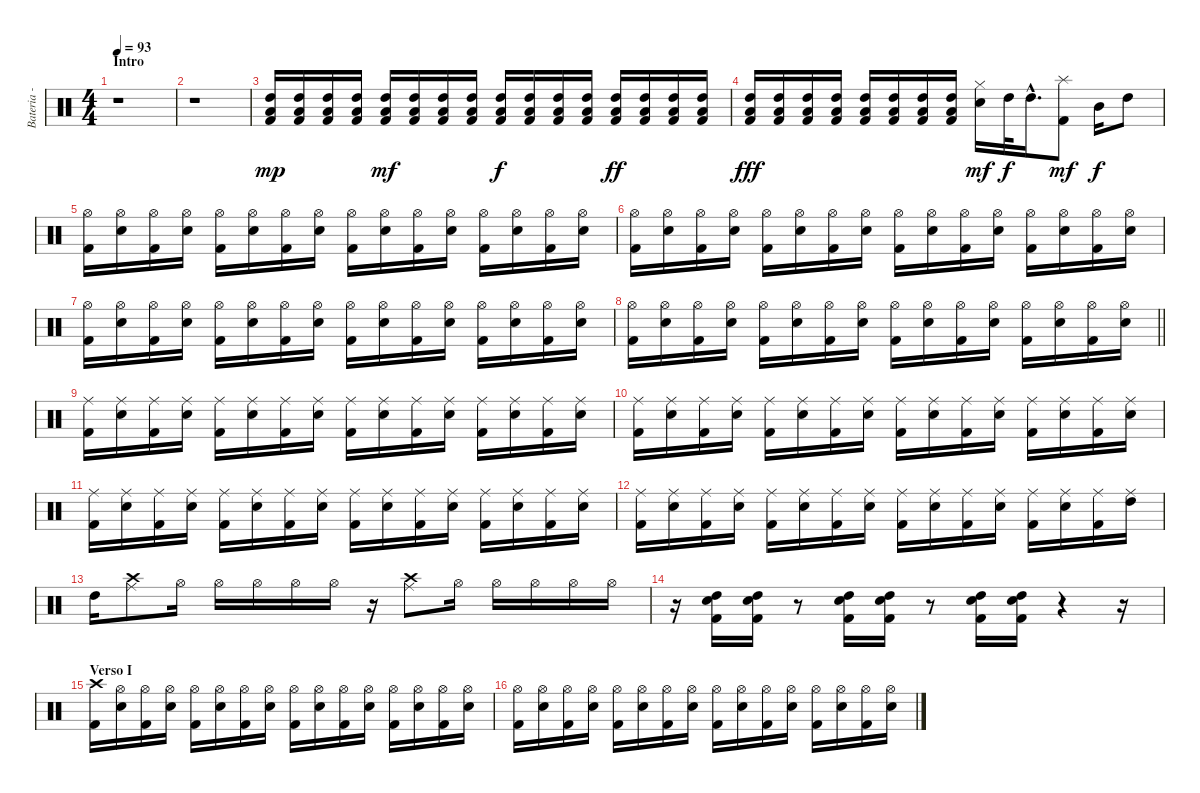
\track ("Bateria - Larzon" "Bateria - ") {instrument percussion}
\staff {score}
\articulation defaults
\ts (4 4)
\section ("" "Intro")
\tempo 93
\clef neutral
\ks c
r.1{dy mp} |
r.1 |
("Low Floor Tom (hit)" "High Tom (hit)" "Kick (hit) 2").16 ("Low Floor Tom (hit)" "High Tom (hit)" "Kick (hit) 2").16 ("Low Floor Tom (hit)" "High Tom (hit)" "Kick (hit) 2").16 ("Low Floor Tom (hit)" "High Tom (hit)" "Kick (hit) 2").16 ("Low Floor Tom (hit)" "High Tom (hit)" "Kick (hit) 2").16{dy mf} ("Low Floor Tom (hit)" "High Tom (hit)" "Kick (hit) 2").16 ("Low Floor Tom (hit)" "High Tom (hit)" "Kick (hit) 2").16 ("Low Floor Tom (hit)" "High Tom (hit)" "Kick (hit) 2").16 ("Low Floor Tom (hit)" "High Tom (hit)" "Kick (hit) 2").16{dy f} ("Low Floor Tom (hit)" "High Tom (hit)" "Kick (hit) 2").16 ("Low Floor Tom (hit)" "High Tom (hit)" "Kick (hit) 2").16 ("Low Floor Tom (hit)" "High Tom (hit)" "Kick (hit) 2").16 ("Low Floor Tom (hit)" "High Tom (hit)" "Kick (hit) 2").16{dy ff} ("Low Floor Tom (hit)" "High Tom (hit)" "Kick (hit) 2").16 ("Low Floor Tom (hit)" "High Tom (hit)" "Kick (hit) 2").16 ("Low Floor Tom (hit)" "High Tom (hit)" "Kick (hit) 2").16 |
("Low Floor Tom (hit)" "High Tom (hit)" "Kick (hit) 2").16{dy fff} ("Low Floor Tom (hit)" "High Tom (hit)" "Kick (hit) 2").16 ("Low Floor Tom (hit)" "High Tom (hit)" "Kick (hit) 2").16 ("Low Floor Tom (hit)" "High Tom (hit)" "Kick (hit) 2").16 ("Low Floor Tom (hit)" "High Tom (hit)" "Kick (hit) 2").16 ("Low Floor Tom (hit)" "High Tom (hit)" "Kick (hit) 2").16 ("Low Floor Tom (hit)" "High Tom (hit)" "Kick (hit) 2").16 ("Low Floor Tom (hit)" "High Tom (hit)" "Kick (hit) 2").16 ("Electric Snare (hit)" "Hi-Hat (closed)").16{dy mf} "High Tom (hit)".32{dy f} "High Tom (hit)"{hac}.16{d} ("Kick (hit) 2" "Splash (hit)").8{dy mf} "Mid Tom (hit)".16{dy f} "High Tom (hit)".8 |
("Kick (hit) 2" "Hi-Hat (open)").16 ("Electric Snare (hit)" "Hi-Hat (open)").16 ("Kick (hit) 2" "Hi-Hat (open)").16 ("Electric Snare (hit)" "Hi-Hat (open)").16 ("Kick (hit) 2" "Hi-Hat (open)").16 ("Electric Snare (hit)" "Hi-Hat (open)").16 ("Kick (hit) 2" "Hi-Hat (open)").16 ("Electric Snare (hit)" "Hi-Hat (open)").16 ("Kick (hit) 2" "Hi-Hat (open)").16 ("Electric Snare (hit)" "Hi-Hat (open)").16 ("Kick (hit) 2" "Hi-Hat (open)").16 ("Electric Snare (hit)" "Hi-Hat (open)").16 ("Kick (hit) 2" "Hi-Hat (open)").16 ("Electric Snare (hit)" "Hi-Hat (open)").16 ("Kick (hit) 2" "Hi-Hat (open)").16 ("Electric Snare (hit)" "Hi-Hat (open)").16 |
("Kick (hit) 2" "Hi-Hat (open)").16 ("Electric Snare (hit)" "Hi-Hat (open)").16 ("Kick (hit) 2" "Hi-Hat (open)").16 ("Electric Snare (hit)" "Hi-Hat (open)").16 ("Kick (hit) 2" "Hi-Hat (open)").16 ("Electric Snare (hit)" "Hi-Hat (open)").16 ("Kick (hit) 2" "Hi-Hat (open)").16 ("Electric Snare (hit)" "Hi-Hat (open)").16 ("Kick (hit) 2" "Hi-Hat (open)").16 ("Electric Snare (hit)" "Hi-Hat (open)").16 ("Kick (hit) 2" "Hi-Hat (open)").16 ("Electric Snare (hit)" "Hi-Hat (open)").16 ("Kick (hit) 2" "Hi-Hat (open)").16 ("Electric Snare (hit)" "Hi-Hat (open)").16 ("Kick (hit) 2" "Hi-Hat (open)").16 ("Electric Snare (hit)" "Hi-Hat (open)").16 |
("Kick (hit) 2" "Hi-Hat (open)").16 ("Electric Snare (hit)" "Hi-Hat (open)").16 ("Kick (hit) 2" "Hi-Hat (open)").16 ("Electric Snare (hit)" "Hi-Hat (open)").16 ("Kick (hit) 2" "Hi-Hat (open)").16 ("Electric Snare (hit)" "Hi-Hat (open)").16 ("Kick (hit) 2" "Hi-Hat (open)").16 ("Electric Snare (hit)" "Hi-Hat (open)").16 ("Kick (hit) 2" "Hi-Hat (open)").16 ("Electric Snare (hit)" "Hi-Hat (open)").16 ("Kick (hit) 2" "Hi-Hat (open)").16 ("Electric Snare (hit)" "Hi-Hat (open)").16 ("Kick (hit) 2" "Hi-Hat (open)").16 ("Electric Snare (hit)" "Hi-Hat (open)").16 ("Kick (hit) 2" "Hi-Hat (open)").16 ("Electric Snare (hit)" "Hi-Hat (open)").16 |
\barLineRight lightlight
("Kick (hit) 2" "Hi-Hat (open)").16 ("Electric Snare (hit)" "Hi-Hat (open)").16 ("Kick (hit) 2" "Hi-Hat (open)").16 ("Electric Snare (hit)" "Hi-Hat (open)").16 ("Kick (hit) 2" "Hi-Hat (open)").16 ("Electric Snare (hit)" "Hi-Hat (open)").16 ("Kick (hit) 2" "Hi-Hat (open)").16 ("Electric Snare (hit)" "Hi-Hat (open)").16 ("Kick (hit) 2" "Hi-Hat (open)").16 ("Electric Snare (hit)" "Hi-Hat (open)").16 ("Kick (hit) 2" "Hi-Hat (open)").16 ("Electric Snare (hit)" "Hi-Hat (open)").16 ("Kick (hit) 2" "Hi-Hat (open)").16 ("Electric Snare (hit)" "Hi-Hat (open)").16 ("Kick (hit) 2" "Hi-Hat (open)").16 ("Electric Snare (hit)" "Hi-Hat (open)").16 |
("Kick (hit) 2" "Ride (middle)").16 ("Electric Snare (hit)" "Ride (middle)").16 ("Kick (hit) 2" "Ride (middle)").16 ("Electric Snare (hit)" "Ride (middle)").16 ("Kick (hit) 2" "Ride (middle)").16 ("Electric Snare (hit)" "Ride (middle)").16 ("Kick (hit) 2" "Ride (middle)").16 ("Electric Snare (hit)" "Ride (middle)").16 ("Kick (hit) 2" "Ride (middle)").16 ("Electric Snare (hit)" "Ride (middle)").16 ("Kick (hit) 2" "Ride (middle)").16 ("Electric Snare (hit)" "Ride (middle)").16 ("Kick (hit) 2" "Ride (middle)").16 ("Electric Snare (hit)" "Ride (middle)").16 ("Kick (hit) 2" "Ride (middle)").16 ("Electric Snare (hit)" "Ride (middle)").16 |
("Kick (hit) 2" "Ride (middle)").16 ("Electric Snare (hit)" "Ride (middle)").16 ("Kick (hit) 2" "Ride (middle)").16 ("Electric Snare (hit)" "Ride (middle)").16 ("Kick (hit) 2" "Ride (middle)").16 ("Electric Snare (hit)" "Ride (middle)").16 ("Kick (hit) 2" "Ride (middle)").16 ("Electric Snare (hit)" "Ride (middle)").16 ("Kick (hit) 2" "Ride (middle)").16 ("Electric Snare (hit)" "Ride (middle)").16 ("Kick (hit) 2" "Ride (middle)").16 ("Electric Snare (hit)" "Ride (middle)").16 ("Kick (hit) 2" "Ride (middle)").16 ("Electric Snare (hit)" "Ride (middle)").16 ("Kick (hit) 2" "Ride (middle)").16 ("Electric Snare (hit)" "Ride (middle)").16 |
("Kick (hit) 2" "Ride (middle)").16 ("Electric Snare (hit)" "Ride (middle)").16 ("Kick (hit) 2" "Ride (middle)").16 ("Electric Snare (hit)" "Ride (middle)").16 ("Kick (hit) 2" "Ride (middle)").16 ("Electric Snare (hit)" "Ride (middle)").16 ("Kick (hit) 2" "Ride (middle)").16 ("Electric Snare (hit)" "Ride (middle)").16 ("Kick (hit) 2" "Ride (middle)").16 ("Electric Snare (hit)" "Ride (middle)").16 ("Kick (hit) 2" "Ride (middle)").16 ("Electric Snare (hit)" "Ride (middle)").16 ("Kick (hit) 2" "Ride (middle)").16 ("Electric Snare (hit)" "Ride (middle)").16 ("Kick (hit) 2" "Ride (middle)").16 ("Electric Snare (hit)" "Ride (middle)").16 |
("Kick (hit) 2" "Ride (middle)").16 ("Electric Snare (hit)" "Ride (middle)").16 ("Kick (hit) 2" "Ride (middle)").16 ("Electric Snare (hit)" "Ride (middle)").16 ("Kick (hit) 2" "Ride (middle)").16 ("Electric Snare (hit)" "Ride (middle)").16 ("Kick (hit) 2" "Ride (middle)").16 ("Electric Snare (hit)" "Ride (middle)").16 ("Kick (hit) 2" "Ride (middle)").16 ("Electric Snare (hit)" "Ride (middle)").16 ("Kick (hit) 2" "Ride (middle)").16 ("Electric Snare (hit)" "Ride (middle)").16 ("Kick (hit) 2" "Ride (middle)").16 ("Electric Snare (hit)" "Ride (middle)").16 ("Kick (hit) 2" "Ride (middle)").16 ("High Tom (hit)" "Ride (middle)").16 |
"High Tom (hit)".16 ("Ride (middle)" "Crash high (hit)").8 "Hi-Hat (open)".16 "Hi-Hat (open)".16 "Hi-Hat (open)".16 "Hi-Hat (open)".16 "Hi-Hat (open)".16 r.16 ("Ride (middle)" "Crash high (hit)").8 "Hi-Hat (open)".16 "Hi-Hat (open)".16 "Hi-Hat (open)".16 "Hi-Hat (open)".16 "Hi-Hat (open)".16 |
r.16 ("Electric Snare (hit)" "High Tom (hit)" "Kick (hit) 2").16 ("Electric Snare (hit)" "High Tom (hit)" "Kick (hit) 2").16 r.8 ("Electric Snare (hit)" "High Tom (hit)" "Kick (hit) 2").16 ("Electric Snare (hit)" "High Tom (hit)" "Kick (hit) 2").16 r.8 ("Electric Snare (hit)" "High Tom (hit)" "Kick (hit) 2").16 ("Electric Snare (hit)" "High Tom (hit)" "Kick (hit) 2").16 r.4 r.16 |
\section ("" "Verso I")
("Kick (hit) 2" "Crash high (hit)").16 ("Electric Snare (hit)" "Hi-Hat (open)").16 ("Kick (hit) 2" "Hi-Hat (open)").16 ("Electric Snare (hit)" "Hi-Hat (open)").16 ("Kick (hit) 2" "Hi-Hat (open)").16 ("Electric Snare (hit)" "Hi-Hat (open)").16 ("Kick (hit) 2" "Hi-Hat (open)").16 ("Electric Snare (hit)" "Hi-Hat (open)").16 ("Kick (hit) 2" "Hi-Hat (open)").16 ("Electric Snare (hit)" "Hi-Hat (open)").16 ("Kick (hit) 2" "Hi-Hat (open)").16 ("Electric Snare (hit)" "Hi-Hat (open)").16 ("Kick (hit) 2" "Hi-Hat (open)").16 ("Electric Snare (hit)" "Hi-Hat (open)").16 ("Kick (hit) 2" "Hi-Hat (open)").16 ("Electric Snare (hit)" "Hi-Hat (open)").16 |
("Kick (hit) 2" "Hi-Hat (open)").16 ("Electric Snare (hit)" "Hi-Hat (open)").16 ("Kick (hit) 2" "Hi-Hat (open)").16 ("Electric Snare (hit)" "Hi-Hat (open)").16 ("Kick (hit) 2" "Hi-Hat (open)").16 ("Electric Snare (hit)" "Hi-Hat (open)").16 ("Kick (hit) 2" "Hi-Hat (open)").16 ("Electric Snare (hit)" "Hi-Hat (open)").16 ("Kick (hit) 2" "Hi-Hat (open)").16 ("Electric Snare (hit)" "Hi-Hat (open)").16 ("Kick (hit) 2" "Hi-Hat (open)").16 ("Electric Snare (hit)" "Hi-Hat (open)").16 ("Kick (hit) 2" "Hi-Hat (open)").16 ("Electric Snare (hit)" "Hi-Hat (open)").16 ("Kick (hit) 2" "Hi-Hat (open)").16 ("Electric Snare (hit)" "Hi-Hat (open)").16
